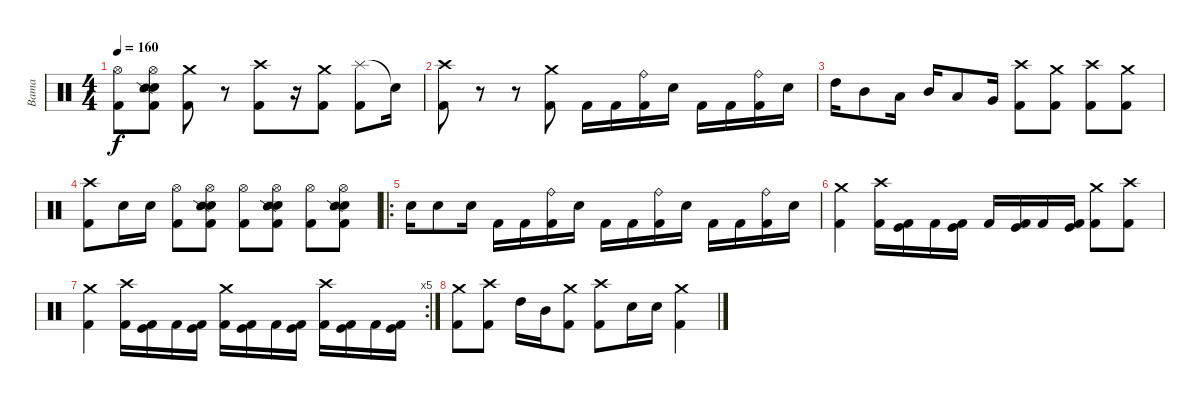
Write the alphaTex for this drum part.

\track ("Bama" "Bama") {instrument percussion}
\staff {score}
\articulation defaults
\ts (4 4)
\tempo 160
\clef neutral
\ks c
("Hi-Hat (open)" "Kick (hit) 2").8{dy f} ("Hi-Hat (open)" "Electric Snare (hit)" "Snare (side stick) 2" "Kick (hit) 2").8 ("Crash medium (hit)" "Kick (hit) 2").8 r.8 ("Crash high (hit)" "Kick (hit) 2").8 r.16 ("Crash medium (hit)" "Kick (hit) 2").8 ("Splash (hit)" "Kick (hit) 2").8 "Snare (hit)"{t}.16 |
("Crash high (hit)" "Kick (hit) 2").8 r.8 r.8 ("Crash medium (hit)" "Kick (hit) 2").8 "Kick (hit) 2".16 "Kick (hit) 2".16 ("Ride (bell)" "Kick (hit) 2").16 "Electric Snare (hit)".16 "Kick (hit) 2".16 "Kick (hit) 2".16 ("Ride (bell)" "Kick (hit) 2").16 "Electric Snare (hit)".16 |
"High Tom (hit)".16 "Mid Tom (hit)".8 "Low Tom (hit)".16 "Mid Tom (hit)".16 "Low Tom (hit)".8 "Very Low Tom (hit)".16 ("Crash high (hit)" "Kick (hit) 2").8 ("Crash medium (hit)" "Kick (hit) 2").8 ("Crash high (hit)" "Kick (hit) 2").8 ("Crash medium (hit)" "Kick (hit) 2").8 |
("Crash high (hit)" "Kick (hit) 2").8 "Electric Snare (hit)".16 "Electric Snare (hit)".16 ("Hi-Hat (open)" "Kick (hit) 2").8 ("Hi-Hat (open)" "Electric Snare (hit)" "Snare (side stick) 2" "Kick (hit) 2").8 ("Hi-Hat (open)" "Kick (hit) 2").8 ("Hi-Hat (open)" "Electric Snare (hit)" "Snare (side stick) 2" "Kick (hit) 2").8 ("Hi-Hat (open)" "Kick (hit) 2").8 ("Hi-Hat (open)" "Electric Snare (hit)" "Snare (side stick) 2" "Kick (hit) 2").8 |
\ro "Electric Snare (hit)".16 "Electric Snare (hit)".8 "Electric Snare (hit)".16 "Kick (hit) 2".16 "Kick (hit) 2".16
("Ride (bell)" "Kick (hit) 2").16 "Electric Snare (hit)".16 "Kick (hit) 2".16 "Kick (hit) 2".16 ("Ride (bell)" "Kick (hit) 2").16 "Electric Snare (hit)".16 "Kick (hit) 2".16 "Kick (hit) 2".16 ("Ride (bell)" "Kick (hit) 2").16 "Electric Snare (hit)".16 |
("Crash medium (hit)" "Kick (hit) 2").4 ("Crash high (hit)" "Kick (hit) 2").16 ("Kick (hit)" "Kick (hit) 2").16 "Kick (hit) 2".16 ("Kick (hit)" "Kick (hit) 2").16 "Kick (hit) 2".16 ("Kick (hit)" "Kick (hit) 2").16 "Kick (hit) 2".16 ("Kick (hit)" "Kick (hit) 2").16 ("Crash medium (hit)" "Kick (hit) 2").8 ("Crash high (hit)" "Kick (hit) 2").8 |
\rc 5
("Crash medium (hit)" "Kick (hit) 2").4 ("Crash high (hit)" "Kick (hit) 2").16 ("Kick (hit)" "Kick (hit) 2").16 "Kick (hit) 2".16 ("Kick (hit)" "Kick (hit) 2").16 ("Crash medium (hit)" "Kick (hit) 2").16 ("Kick (hit)" "Kick (hit) 2").16 "Kick (hit) 2".16 ("Kick (hit)" "Kick (hit) 2").16 ("Crash high (hit)" "Kick (hit) 2").16 ("Kick (hit)" "Kick (hit) 2").16 "Kick (hit) 2".16 ("Kick (hit)" "Kick (hit) 2").16 |
("Crash medium (hit)" "Kick (hit) 2").8 ("Crash high (hit)" "Kick (hit) 2").8 "High Tom (hit)".16 "Mid Tom (hit)".16 ("Crash medium (hit)" "Kick (hit) 2").8 ("Crash high (hit)" "Kick (hit) 2").8 "Electric Snare (hit)".16 "Electric Snare (hit)".16 ("Crash medium (hit)" "Kick (hit) 2").4
